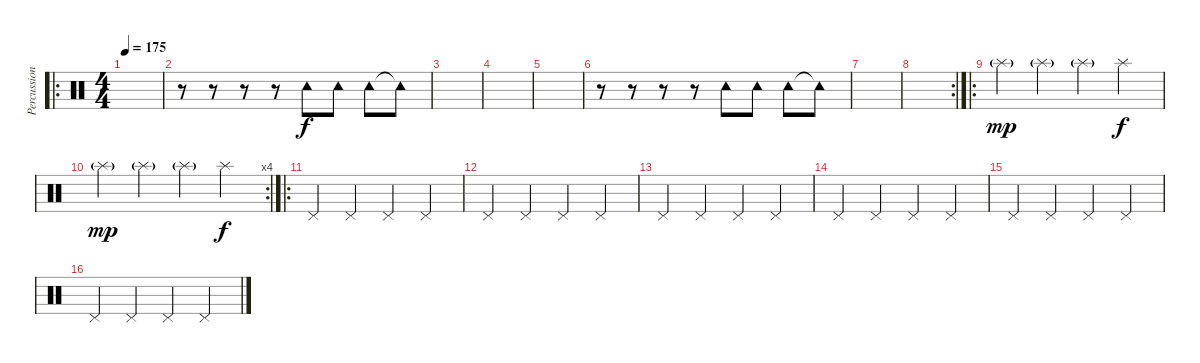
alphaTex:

\track ("Percussion" "Percussion") {instrument percussion}
\staff {score}
\articulation defaults
\ro
\ts (4 4)
\tempo 175
\clef neutral
\ks c
|
r.8 r.8 r.8 r.8 "Tambourine (hit)".8 "Tambourine (hit)".8 "Tambourine (hit)".8 "Tambourine (hit)"{t}.8 |
|
|
|
r.8 r.8 r.8 r.8 "Tambourine (hit)".8 "Tambourine (hit)".8 "Tambourine (hit)".8 "Tambourine (hit)"{t}.8 |
|
\rc 2
|
\ro "Splash (hit)"{g}.4{dy mp} "Splash (hit)"{g}.4 "Splash (hit)"{g}.4 "Splash (hit)".4{dy f}
|
\rc 4 "Splash (hit)"{g}.4{dy mp} "Splash (hit)"{g}.4 "Splash (hit)"{g}.4 "Splash (hit)".4{dy f}
|
\ro "Pedal Hi-Hat (hit)".4 "Pedal Hi-Hat (hit)".4 "Pedal Hi-Hat (hit)".4 "Pedal Hi-Hat (hit)".4
|
"Pedal Hi-Hat (hit)".4 "Pedal Hi-Hat (hit)".4 "Pedal Hi-Hat (hit)".4 "Pedal Hi-Hat (hit)".4 |
"Pedal Hi-Hat (hit)".4 "Pedal Hi-Hat (hit)".4 "Pedal Hi-Hat (hit)".4 "Pedal Hi-Hat (hit)".4 |
"Pedal Hi-Hat (hit)".4 "Pedal Hi-Hat (hit)".4 "Pedal Hi-Hat (hit)".4 "Pedal Hi-Hat (hit)".4 |
"Pedal Hi-Hat (hit)".4 "Pedal Hi-Hat (hit)".4 "Pedal Hi-Hat (hit)".4 "Pedal Hi-Hat (hit)".4 |
"Pedal Hi-Hat (hit)".4 "Pedal Hi-Hat (hit)".4 "Pedal Hi-Hat (hit)".4 "Pedal Hi-Hat (hit)".4
